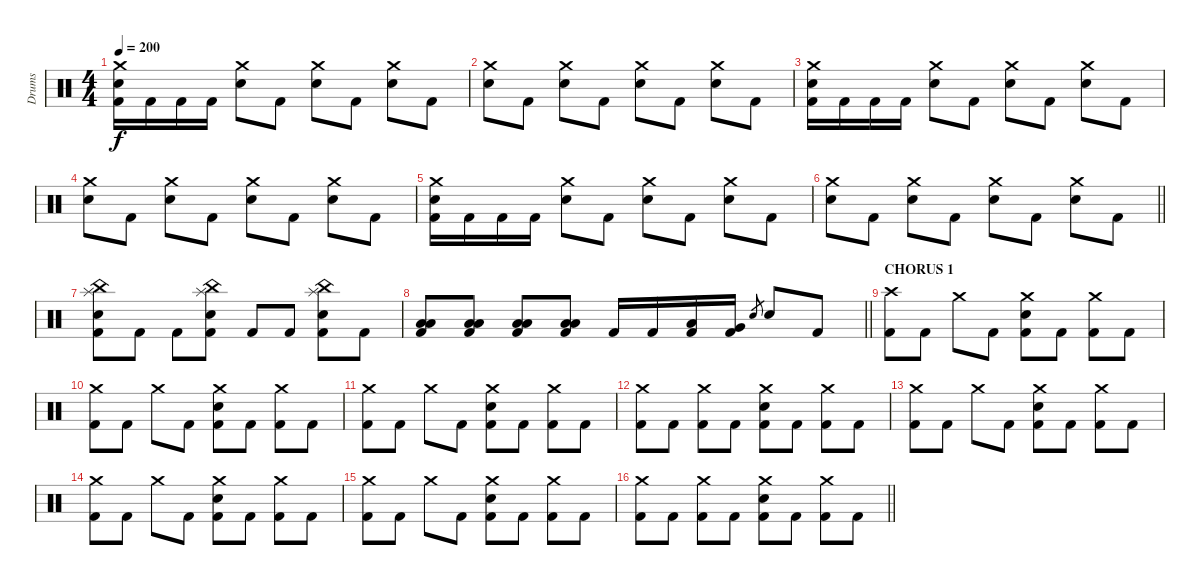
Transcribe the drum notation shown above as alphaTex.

\track ("Drums" "Drums") {instrument percussion}
\staff {score}
\articulation defaults
\ts (4 4)
\tempo 200
\clef neutral
\ks c
("Crash medium (hit)" "Electric Snare (hit)" "Kick (hit) 2").16{dy f} "Kick (hit) 2".16 "Kick (hit) 2".16 "Kick (hit) 2".16 ("Crash medium (hit)" "Electric Snare (hit)").8 "Kick (hit) 2".8 ("Crash medium (hit)" "Electric Snare (hit)").8 "Kick (hit) 2".8 ("Crash medium (hit)" "Electric Snare (hit)").8 "Kick (hit) 2".8 |
("Crash medium (hit)" "Electric Snare (hit)").8 "Kick (hit) 2".8 ("Crash medium (hit)" "Electric Snare (hit)").8 "Kick (hit) 2".8 ("Crash medium (hit)" "Electric Snare (hit)").8 "Kick (hit) 2".8 ("Crash medium (hit)" "Electric Snare (hit)").8 "Kick (hit) 2".8 |
("Crash medium (hit)" "Electric Snare (hit)" "Kick (hit) 2").16 "Kick (hit) 2".16 "Kick (hit) 2".16 "Kick (hit) 2".16 ("Crash medium (hit)" "Electric Snare (hit)").8 "Kick (hit) 2".8 ("Crash medium (hit)" "Electric Snare (hit)").8 "Kick (hit) 2".8 ("Crash medium (hit)" "Electric Snare (hit)").8 "Kick (hit) 2".8 |
("Crash medium (hit)" "Electric Snare (hit)").8 "Kick (hit) 2".8 ("Crash medium (hit)" "Electric Snare (hit)").8 "Kick (hit) 2".8 ("Crash medium (hit)" "Electric Snare (hit)").8 "Kick (hit) 2".8 ("Crash medium (hit)" "Electric Snare (hit)").8 "Kick (hit) 2".8 |
("Crash medium (hit)" "Electric Snare (hit)" "Kick (hit) 2").16 "Kick (hit) 2".16 "Kick (hit) 2".16 "Kick (hit) 2".16 ("Crash medium (hit)" "Electric Snare (hit)").8 "Kick (hit) 2".8 ("Crash medium (hit)" "Electric Snare (hit)").8 "Kick (hit) 2".8 ("Crash medium (hit)" "Electric Snare (hit)").8 "Kick (hit) 2".8 |
\barLineRight lightlight
("Crash medium (hit)" "Electric Snare (hit)").8 "Kick (hit) 2".8 ("Crash medium (hit)" "Electric Snare (hit)").8 "Kick (hit) 2".8 ("Crash medium (hit)" "Electric Snare (hit)").8 "Kick (hit) 2".8 ("Crash medium (hit)" "Electric Snare (hit)").8 "Kick (hit) 2".8 |
("Splash (hit)" "China (hit)" "Electric Snare (hit)" "Kick (hit) 2").8 "Kick (hit) 2".8 "Kick (hit) 2".8 ("Splash (hit)" "China (hit)" "Electric Snare (hit)" "Kick (hit) 2").8 "Kick (hit) 2".8 "Kick (hit) 2".8 ("Splash (hit)" "China (hit)" "Electric Snare (hit)" "Kick (hit) 2").8 "Kick (hit) 2".8 |
\barLineRight lightlight
("Low Tom (hit)" "Low Floor Tom (hit)" "Kick (hit) 2").8 ("Low Tom (hit)" "Low Floor Tom (hit)" "Kick (hit) 2").8 ("Low Tom (hit)" "Low Floor Tom (hit)" "Kick (hit) 2").8 ("Low Tom (hit)" "Low Floor Tom (hit)" "Kick (hit) 2").8 "Kick (hit) 2".16 "Kick (hit) 2".16 ("Low Tom (hit)" "Kick (hit) 2").16 ("Very Low Tom (hit)" "Kick (hit) 2").16 "Electric Snare (hit)".8{gr} "Electric Snare (hit)".8 "Kick (hit) 2".8 |
\section ("" "CHORUS 1")
("Crash high (hit)" "Kick (hit) 2").8 "Kick (hit) 2".8 "Crash medium (hit)".8 "Kick (hit) 2".8 ("Crash medium (hit)" "Electric Snare (hit)" "Kick (hit) 2").8 "Kick (hit) 2".8 ("Crash medium (hit)" "Kick (hit) 2").8 "Kick (hit) 2".8 |
("Crash medium (hit)" "Kick (hit) 2").8 "Kick (hit) 2".8 "Crash medium (hit)".8 "Kick (hit) 2".8 ("Crash medium (hit)" "Electric Snare (hit)" "Kick (hit) 2").8 "Kick (hit) 2".8 ("Crash medium (hit)" "Kick (hit) 2").8 "Kick (hit) 2".8 |
("Crash medium (hit)" "Kick (hit) 2").8 "Kick (hit) 2".8 "Crash medium (hit)".8 "Kick (hit) 2".8 ("Crash medium (hit)" "Electric Snare (hit)" "Kick (hit) 2").8 "Kick (hit) 2".8 ("Crash medium (hit)" "Kick (hit) 2").8 "Kick (hit) 2".8 |
("Crash medium (hit)" "Kick (hit) 2").8 "Kick (hit) 2".8 ("Crash medium (hit)" "Kick (hit) 2").8 "Kick (hit) 2".8 ("Crash medium (hit)" "Electric Snare (hit)" "Kick (hit) 2").8 "Kick (hit) 2".8 ("Crash medium (hit)" "Kick (hit) 2").8 "Kick (hit) 2".8 |
("Crash medium (hit)" "Kick (hit) 2").8 "Kick (hit) 2".8 "Crash medium (hit)".8 "Kick (hit) 2".8 ("Crash medium (hit)" "Electric Snare (hit)" "Kick (hit) 2").8 "Kick (hit) 2".8 ("Crash medium (hit)" "Kick (hit) 2").8 "Kick (hit) 2".8 |
("Crash medium (hit)" "Kick (hit) 2").8 "Kick (hit) 2".8 "Crash medium (hit)".8 "Kick (hit) 2".8 ("Crash medium (hit)" "Electric Snare (hit)" "Kick (hit) 2").8 "Kick (hit) 2".8 ("Crash medium (hit)" "Kick (hit) 2").8 "Kick (hit) 2".8 |
("Crash medium (hit)" "Kick (hit) 2").8 "Kick (hit) 2".8 "Crash medium (hit)".8 "Kick (hit) 2".8 ("Crash medium (hit)" "Electric Snare (hit)" "Kick (hit) 2").8 "Kick (hit) 2".8 ("Crash medium (hit)" "Kick (hit) 2").8 "Kick (hit) 2".8 |
\barLineRight lightlight
("Crash medium (hit)" "Kick (hit) 2").8 "Kick (hit) 2".8 ("Crash medium (hit)" "Kick (hit) 2").8 "Kick (hit) 2".8 ("Crash medium (hit)" "Electric Snare (hit)" "Kick (hit) 2").8 "Kick (hit) 2".8 ("Crash medium (hit)" "Kick (hit) 2").8 "Kick (hit) 2".8
